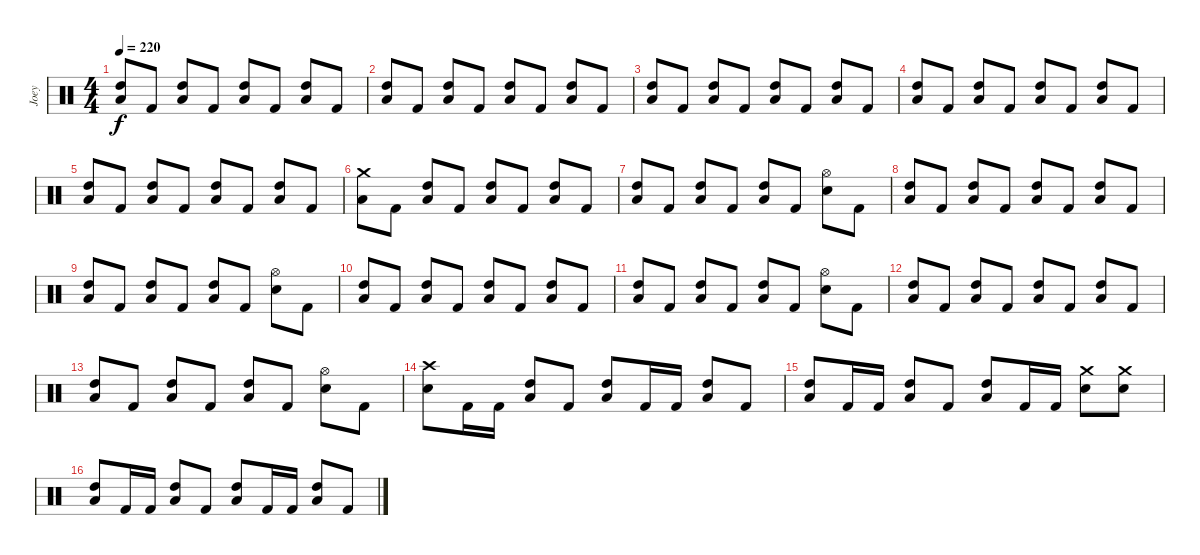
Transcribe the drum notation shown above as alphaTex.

\track ("Joey" "Joey") {instrument percussion}
\staff {score}
\articulation defaults
\ts (4 4)
\tempo 220
\clef neutral
\ks c
("High Tom (hit)" "Low Floor Tom (hit)").8{dy f} "Kick (hit) 2".8 ("High Tom (hit)" "Low Floor Tom (hit)").8 "Kick (hit) 2".8 ("High Tom (hit)" "Low Floor Tom (hit)").8 "Kick (hit) 2".8 ("High Tom (hit)" "Low Floor Tom (hit)").8 "Kick (hit) 2".8 |
("High Tom (hit)" "Low Floor Tom (hit)").8 "Kick (hit) 2".8 ("High Tom (hit)" "Low Floor Tom (hit)").8 "Kick (hit) 2".8 ("High Tom (hit)" "Low Floor Tom (hit)").8 "Kick (hit) 2".8 ("High Tom (hit)" "Low Floor Tom (hit)").8 "Kick (hit) 2".8 |
("High Tom (hit)" "Low Floor Tom (hit)").8 "Kick (hit) 2".8 ("High Tom (hit)" "Low Floor Tom (hit)").8 "Kick (hit) 2".8 ("High Tom (hit)" "Low Floor Tom (hit)").8 "Kick (hit) 2".8 ("High Tom (hit)" "Low Floor Tom (hit)").8 "Kick (hit) 2".8 |
("High Tom (hit)" "Low Floor Tom (hit)").8 "Kick (hit) 2".8 ("High Tom (hit)" "Low Floor Tom (hit)").8 "Kick (hit) 2".8 ("High Tom (hit)" "Low Floor Tom (hit)").8 "Kick (hit) 2".8 ("High Tom (hit)" "Low Floor Tom (hit)").8 "Kick (hit) 2".8 |
("High Tom (hit)" "Low Floor Tom (hit)").8 "Kick (hit) 2".8 ("High Tom (hit)" "Low Floor Tom (hit)").8 "Kick (hit) 2".8 ("High Tom (hit)" "Low Floor Tom (hit)").8 "Kick (hit) 2".8 ("High Tom (hit)" "Low Floor Tom (hit)").8 "Kick (hit) 2".8 |
("Crash medium (hit)" "Low Floor Tom (hit)").8 "Kick (hit) 2".8 ("High Tom (hit)" "Low Floor Tom (hit)").8 "Kick (hit) 2".8 ("High Tom (hit)" "Low Floor Tom (hit)").8 "Kick (hit) 2".8 ("High Tom (hit)" "Low Floor Tom (hit)").8 "Kick (hit) 2".8 |
("High Tom (hit)" "Low Floor Tom (hit)").8 "Kick (hit) 2".8 ("High Tom (hit)" "Low Floor Tom (hit)").8 "Kick (hit) 2".8 ("High Tom (hit)" "Low Floor Tom (hit)").8 "Kick (hit) 2".8 ("Hi-Hat (open)" "Electric Snare (hit)").8 "Kick (hit) 2".8 |
("High Tom (hit)" "Low Floor Tom (hit)").8 "Kick (hit) 2".8 ("High Tom (hit)" "Low Floor Tom (hit)").8 "Kick (hit) 2".8 ("High Tom (hit)" "Low Floor Tom (hit)").8 "Kick (hit) 2".8 ("High Tom (hit)" "Low Floor Tom (hit)").8 "Kick (hit) 2".8 |
("High Tom (hit)" "Low Floor Tom (hit)").8 "Kick (hit) 2".8 ("High Tom (hit)" "Low Floor Tom (hit)").8 "Kick (hit) 2".8 ("High Tom (hit)" "Low Floor Tom (hit)").8 "Kick (hit) 2".8 ("Hi-Hat (open)" "Electric Snare (hit)").8 "Kick (hit) 2".8 |
("High Tom (hit)" "Low Floor Tom (hit)").8 "Kick (hit) 2".8 ("High Tom (hit)" "Low Floor Tom (hit)").8 "Kick (hit) 2".8 ("High Tom (hit)" "Low Floor Tom (hit)").8 "Kick (hit) 2".8 ("High Tom (hit)" "Low Floor Tom (hit)").8 "Kick (hit) 2".8 |
("High Tom (hit)" "Low Floor Tom (hit)").8 "Kick (hit) 2".8 ("High Tom (hit)" "Low Floor Tom (hit)").8 "Kick (hit) 2".8 ("High Tom (hit)" "Low Floor Tom (hit)").8 "Kick (hit) 2".8 ("Hi-Hat (open)" "Electric Snare (hit)").8 "Kick (hit) 2".8 |
("High Tom (hit)" "Low Floor Tom (hit)").8 "Kick (hit) 2".8 ("High Tom (hit)" "Low Floor Tom (hit)").8 "Kick (hit) 2".8 ("High Tom (hit)" "Low Floor Tom (hit)").8 "Kick (hit) 2".8 ("High Tom (hit)" "Low Floor Tom (hit)").8 "Kick (hit) 2".8 |
("High Tom (hit)" "Low Floor Tom (hit)").8 "Kick (hit) 2".8 ("High Tom (hit)" "Low Floor Tom (hit)").8 "Kick (hit) 2".8 ("High Tom (hit)" "Low Floor Tom (hit)").8 "Kick (hit) 2".8 ("Hi-Hat (open)" "Electric Snare (hit)").8 "Kick (hit) 2".8 |
("Crash high (hit)" "Electric Snare (hit)").8 "Kick (hit) 2".16 "Kick (hit) 2".16 ("High Tom (hit)" "Low Floor Tom (hit)").8 "Kick (hit) 2".8 ("High Tom (hit)" "Low Floor Tom (hit)").8 "Kick (hit) 2".16 "Kick (hit) 2".16 ("High Tom (hit)" "Low Floor Tom (hit)").8 "Kick (hit) 2".8 |
("High Tom (hit)" "Low Floor Tom (hit)").8 "Kick (hit) 2".16 "Kick (hit) 2".16 ("High Tom (hit)" "Low Floor Tom (hit)").8 "Kick (hit) 2".8 ("High Tom (hit)" "Low Floor Tom (hit)").8 "Kick (hit) 2".16 "Kick (hit) 2".16 ("Crash medium (hit)" "Electric Snare (hit)").8 ("Crash medium (hit)" "Electric Snare (hit)").8 |
("High Tom (hit)" "Low Floor Tom (hit)").8 "Kick (hit) 2".16 "Kick (hit) 2".16 ("High Tom (hit)" "Low Floor Tom (hit)").8 "Kick (hit) 2".8 ("High Tom (hit)" "Low Floor Tom (hit)").8 "Kick (hit) 2".16 "Kick (hit) 2".16 ("High Tom (hit)" "Low Floor Tom (hit)").8 "Kick (hit) 2".8
